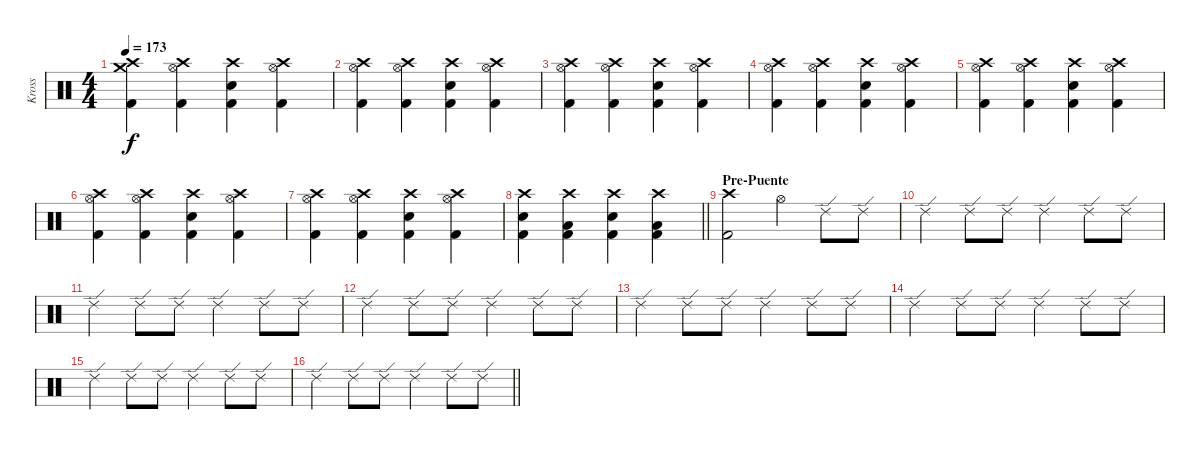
\track ("Kross" "Kross") {instrument percussion}
\staff {score}
\articulation defaults
\ts (4 4)
\tempo 173
\clef neutral
\ks c
("Crash medium (hit)" "Crash high (hit)" "Kick (hit) 2").4{dy f} ("Crash high (hit)" "Hi-Hat (open)" "Kick (hit) 2").4 ("Crash high (hit)" "Electric Snare (hit)" "Kick (hit) 2").4 ("Crash high (hit)" "Hi-Hat (open)" "Kick (hit) 2").4 |
("Crash high (hit)" "Hi-Hat (open)" "Kick (hit) 2").4 ("Crash high (hit)" "Hi-Hat (open)" "Kick (hit) 2").4 ("Crash high (hit)" "Electric Snare (hit)" "Kick (hit) 2").4 ("Crash high (hit)" "Hi-Hat (open)" "Kick (hit) 2").4 |
("Crash high (hit)" "Hi-Hat (open)" "Kick (hit) 2").4 ("Crash high (hit)" "Hi-Hat (open)" "Kick (hit) 2").4 ("Crash high (hit)" "Electric Snare (hit)" "Kick (hit) 2").4 ("Crash high (hit)" "Hi-Hat (open)" "Kick (hit) 2").4 |
("Crash high (hit)" "Hi-Hat (open)" "Kick (hit) 2").4 ("Crash high (hit)" "Hi-Hat (open)" "Kick (hit) 2").4 ("Crash high (hit)" "Electric Snare (hit)" "Kick (hit) 2").4 ("Crash high (hit)" "Hi-Hat (open)" "Kick (hit) 2").4 |
("Crash high (hit)" "Hi-Hat (open)" "Kick (hit) 2").4 ("Crash high (hit)" "Hi-Hat (open)" "Kick (hit) 2").4 ("Crash high (hit)" "Electric Snare (hit)" "Kick (hit) 2").4 ("Crash high (hit)" "Hi-Hat (open)" "Kick (hit) 2").4 |
("Crash high (hit)" "Hi-Hat (open)" "Kick (hit) 2").4 ("Crash high (hit)" "Hi-Hat (open)" "Kick (hit) 2").4 ("Crash high (hit)" "Electric Snare (hit)" "Kick (hit) 2").4 ("Crash high (hit)" "Hi-Hat (open)" "Kick (hit) 2").4 |
("Crash high (hit)" "Hi-Hat (open)" "Kick (hit) 2").4 ("Crash high (hit)" "Hi-Hat (open)" "Kick (hit) 2").4 ("Crash high (hit)" "Electric Snare (hit)" "Kick (hit) 2").4 ("Crash high (hit)" "Hi-Hat (open)" "Kick (hit) 2").4 |
\barLineRight lightlight
("Crash high (hit)" "Electric Snare (hit)" "Kick (hit) 2").4 ("Crash high (hit)" "Low Tom (hit)" "Kick (hit) 2").4 ("Crash high (hit)" "Electric Snare (hit)" "Kick (hit) 2").4 ("Crash high (hit)" "Low Tom (hit)" "Kick (hit) 2").4 |
\section ("" "Pre-Puente")
("Crash high (hit)" "Kick (hit) 2").2 "Hi-Hat (open)".4 "Ride (edge) 2".8 "Ride (edge) 2".8 |
"Ride (edge) 2".4 "Ride (edge) 2".8 "Ride (edge) 2".8 "Ride (edge) 2".4 "Ride (edge) 2".8 "Ride (edge) 2".8 |
"Ride (edge) 2".4 "Ride (edge) 2".8 "Ride (edge) 2".8 "Ride (edge) 2".4 "Ride (edge) 2".8 "Ride (edge) 2".8 |
"Ride (edge) 2".4 "Ride (edge) 2".8 "Ride (edge) 2".8 "Ride (edge) 2".4 "Ride (edge) 2".8 "Ride (edge) 2".8 |
"Ride (edge) 2".4 "Ride (edge) 2".8 "Ride (edge) 2".8 "Ride (edge) 2".4 "Ride (edge) 2".8 "Ride (edge) 2".8 |
"Ride (edge) 2".4 "Ride (edge) 2".8 "Ride (edge) 2".8 "Ride (edge) 2".4 "Ride (edge) 2".8 "Ride (edge) 2".8 |
"Ride (edge) 2".4 "Ride (edge) 2".8 "Ride (edge) 2".8 "Ride (edge) 2".4 "Ride (edge) 2".8 "Ride (edge) 2".8 |
\barLineRight lightlight "Ride (edge) 2".4 "Ride (edge) 2".8 "Ride (edge) 2".8 "Ride (edge) 2".4 "Ride (edge) 2".8 "Ride (edge) 2".8
